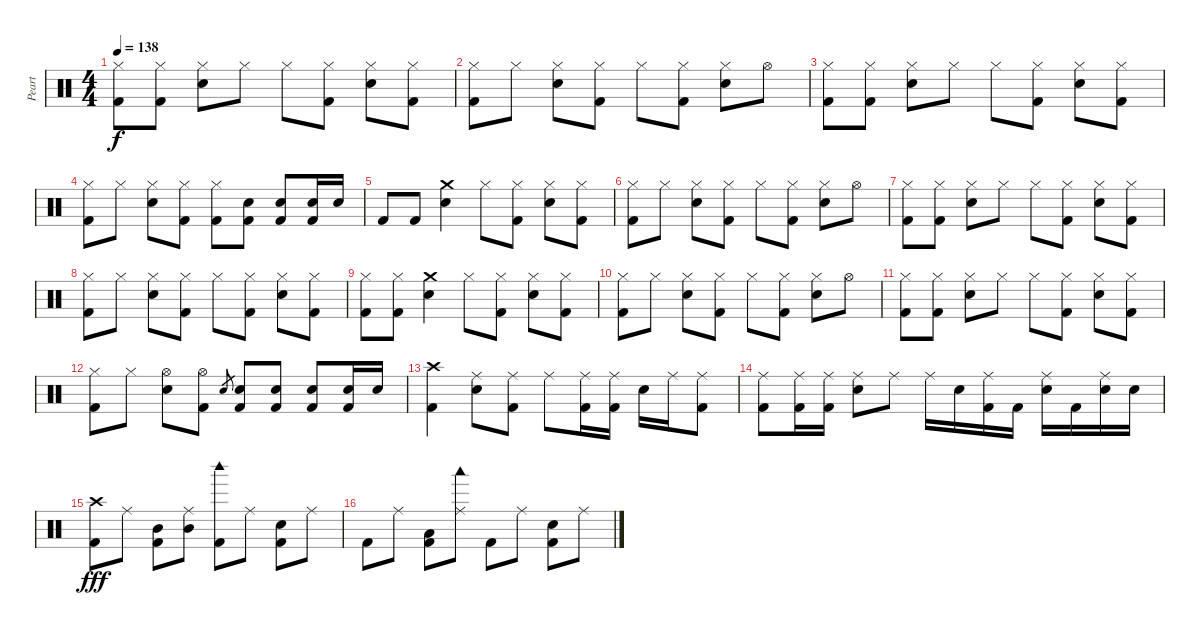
\track ("Peart" "Peart") {instrument percussion}
\staff {score}
\articulation defaults
\ts (4 4)
\tempo 138
\clef neutral
\ks c
("Hi-Hat (closed)" "Kick (hit) 2").8{dy f} ("Hi-Hat (closed)" "Kick (hit) 2").8 ("Hi-Hat (closed)" "Electric Snare (hit)").8 "Hi-Hat (closed)".8 "Hi-Hat (closed)".8 ("Hi-Hat (closed)" "Kick (hit) 2").8 ("Hi-Hat (closed)" "Electric Snare (hit)").8 ("Hi-Hat (closed)" "Kick (hit) 2").8 |
("Hi-Hat (closed)" "Kick (hit) 2").8 "Hi-Hat (closed)".8 ("Hi-Hat (closed)" "Electric Snare (hit)").8 ("Hi-Hat (closed)" "Kick (hit) 2").8 "Hi-Hat (closed)".8 ("Hi-Hat (closed)" "Kick (hit) 2").8 ("Hi-Hat (closed)" "Electric Snare (hit)").8 "Hi-Hat (open)".8 |
("Hi-Hat (closed)" "Kick (hit) 2").8 ("Hi-Hat (closed)" "Kick (hit) 2").8 ("Hi-Hat (closed)" "Electric Snare (hit)").8 "Hi-Hat (closed)".8 "Hi-Hat (closed)".8 ("Hi-Hat (closed)" "Kick (hit) 2").8 ("Hi-Hat (closed)" "Electric Snare (hit)").8 ("Hi-Hat (closed)" "Kick (hit) 2").8 |
("Hi-Hat (closed)" "Kick (hit) 2").8 "Hi-Hat (closed)".8 ("Hi-Hat (closed)" "Electric Snare (hit)").8 ("Hi-Hat (closed)" "Kick (hit) 2").8 ("Hi-Hat (closed)" "Kick (hit) 2").8 ("Electric Snare (hit)" "Kick (hit) 2").8 ("Electric Snare (hit)" "Kick (hit) 2").8 ("Electric Snare (hit)" "Kick (hit) 2").16 "Electric Snare (hit)".16 |
"Kick (hit) 2".8 "Kick (hit) 2".8 ("Crash medium (hit)" "Electric Snare (hit)").4 "Hi-Hat (closed)".8 ("Hi-Hat (closed)" "Kick (hit) 2").8 ("Hi-Hat (closed)" "Electric Snare (hit)").8 ("Hi-Hat (closed)" "Kick (hit) 2").8 |
("Hi-Hat (closed)" "Kick (hit) 2").8 "Hi-Hat (closed)".8 ("Hi-Hat (closed)" "Electric Snare (hit)").8 ("Hi-Hat (closed)" "Kick (hit) 2").8 "Hi-Hat (closed)".8 ("Hi-Hat (closed)" "Kick (hit) 2").8 ("Hi-Hat (closed)" "Electric Snare (hit)").8 "Hi-Hat (open)".8 |
("Hi-Hat (closed)" "Kick (hit) 2").8 ("Hi-Hat (closed)" "Kick (hit) 2").8 ("Hi-Hat (closed)" "Electric Snare (hit)").8 "Hi-Hat (closed)".8 "Hi-Hat (closed)".8 ("Hi-Hat (closed)" "Kick (hit) 2").8 ("Hi-Hat (closed)" "Electric Snare (hit)").8 ("Hi-Hat (closed)" "Kick (hit) 2").8 |
("Hi-Hat (closed)" "Kick (hit) 2").8 "Hi-Hat (closed)".8 ("Hi-Hat (closed)" "Electric Snare (hit)").8 ("Hi-Hat (closed)" "Kick (hit) 2").8 "Hi-Hat (closed)".8 ("Hi-Hat (closed)" "Kick (hit) 2").8 ("Hi-Hat (closed)" "Electric Snare (hit)").8 ("Hi-Hat (closed)" "Kick (hit) 2").8 |
("Hi-Hat (closed)" "Kick (hit) 2").8 ("Hi-Hat (closed)" "Kick (hit) 2").8 ("Crash medium (hit)" "Electric Snare (hit)").4 "Hi-Hat (closed)".8 ("Hi-Hat (closed)" "Kick (hit) 2").8 ("Hi-Hat (closed)" "Electric Snare (hit)").8 ("Hi-Hat (closed)" "Kick (hit) 2").8 |
("Hi-Hat (closed)" "Kick (hit) 2").8 "Hi-Hat (closed)".8 ("Hi-Hat (closed)" "Electric Snare (hit)").8 ("Hi-Hat (closed)" "Kick (hit) 2").8 "Hi-Hat (closed)".8 ("Hi-Hat (closed)" "Kick (hit) 2").8 ("Hi-Hat (closed)" "Electric Snare (hit)").8 "Hi-Hat (open)".8 |
("Hi-Hat (closed)" "Kick (hit) 2").8 ("Hi-Hat (closed)" "Kick (hit) 2").8 ("Hi-Hat (closed)" "Electric Snare (hit)").8 "Hi-Hat (closed)".8 "Hi-Hat (closed)".8 ("Hi-Hat (closed)" "Kick (hit) 2").8 ("Hi-Hat (closed)" "Electric Snare (hit)").8 ("Hi-Hat (closed)" "Kick (hit) 2").8 |
("Hi-Hat (closed)" "Kick (hit) 2").8 "Hi-Hat (closed)".8 ("Hi-Hat (open)" "Electric Snare (hit)").8 ("Hi-Hat (open)" "Kick (hit) 2").8 "Electric Snare (hit)".8{gr} ("Electric Snare (hit)" "Kick (hit) 2").8 ("Electric Snare (hit)" "Kick (hit) 2").8 ("Electric Snare (hit)" "Kick (hit) 2").8 ("Electric Snare (hit)" "Kick (hit) 2").16 "Electric Snare (hit)".16 |
("Crash high (hit)" "Kick (hit) 2").4 ("Ride (middle)" "Electric Snare (hit)").8 ("Ride (middle)" "Kick (hit) 2").8 "Ride (middle)".8 ("Ride (middle)" "Kick (hit) 2").16 ("Ride (middle)" "Kick (hit) 2").16 "Electric Snare (hit)".16 "Ride (middle)".16 ("Ride (middle)" "Kick (hit) 2").8 |
("Ride (middle)" "Kick (hit) 2").8 ("Ride (middle)" "Kick (hit) 2").16 ("Ride (middle)" "Kick (hit) 2").16 ("Ride (middle)" "Electric Snare (hit)").8 "Ride (middle)".8 "Ride (middle)".16 "Electric Snare (hit)".16 ("Ride (middle)" "Kick (hit) 2").16 "Kick (hit) 2".16 ("Ride (middle)" "Electric Snare (hit)").16 "Kick (hit) 2".16 ("Ride (middle)" "Electric Snare (hit)").16 "Electric Snare (hit)".16 |
("Crash high (hit)" "Kick (hit) 2").8{dy fff} "Ride (middle)".8 ("Mid Tom (hit)" "Kick (hit) 2").8 ("Ride (middle)" "Mid Tom (hit)").8 ("Woodblock high (hit)" "Kick (hit) 2").8 "Ride (middle)".8 ("Electric Snare (hit)" "Kick (hit) 2").8 "Ride (middle)".8 |
"Kick (hit) 2".8 "Ride (middle)".8 ("Low Tom (hit)" "Kick (hit) 2").8 ("Ride (middle)" "Woodblock low (hit)").8 "Kick (hit) 2".8 "Ride (middle)".8 ("Electric Snare (hit)" "Kick (hit) 2").8 "Ride (middle)".8
